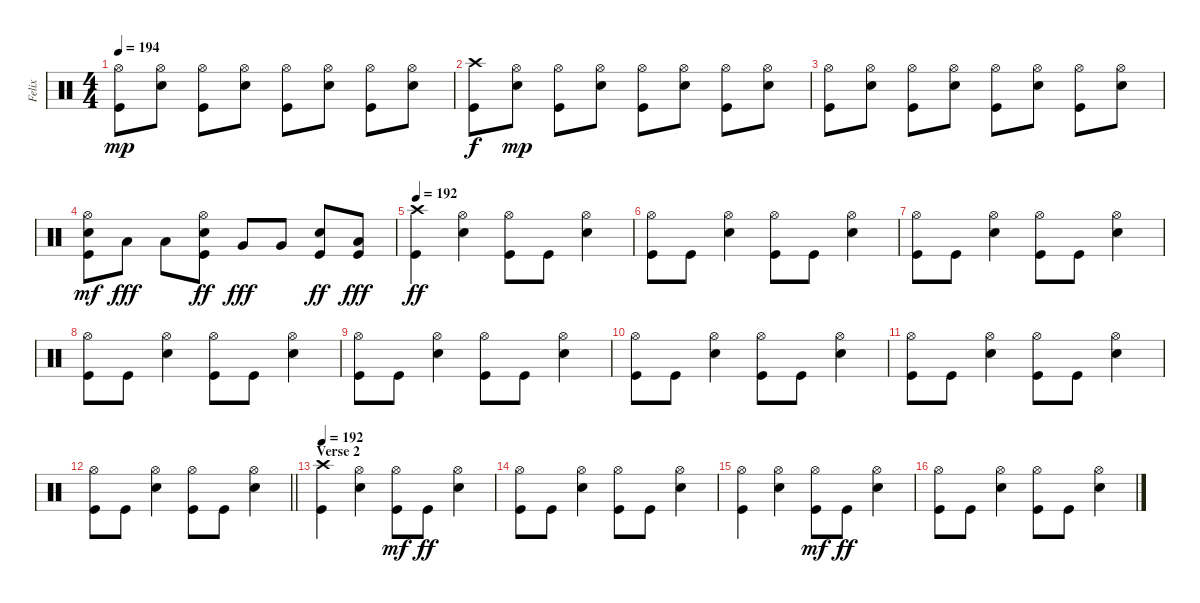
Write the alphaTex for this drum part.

\track ("Felix" "Felix") {instrument percussion}
\staff {score}
\articulation defaults
\ts (4 4)
\tempo 194
\clef neutral
\ks c
("Hi-Hat (open)" "Kick (hit)").8{dy mp} ("Hi-Hat (open)" "Snare (hit) 2").8 ("Hi-Hat (open)" "Kick (hit)").8 ("Hi-Hat (open)" "Snare (hit) 2").8 ("Hi-Hat (open)" "Kick (hit)").8 ("Hi-Hat (open)" "Snare (hit) 2").8 ("Hi-Hat (open)" "Kick (hit)").8 ("Hi-Hat (open)" "Snare (hit) 2").8 |
("Crash high (hit)" "Kick (hit)").8{dy f} ("Hi-Hat (open)" "Snare (hit) 2").8{dy mp} ("Hi-Hat (open)" "Kick (hit)").8 ("Hi-Hat (open)" "Snare (hit) 2").8 ("Hi-Hat (open)" "Kick (hit)").8 ("Hi-Hat (open)" "Snare (hit) 2").8 ("Hi-Hat (open)" "Kick (hit)").8 ("Hi-Hat (open)" "Snare (hit) 2").8 |
("Hi-Hat (open)" "Kick (hit)").8 ("Hi-Hat (open)" "Snare (hit) 2").8 ("Hi-Hat (open)" "Kick (hit)").8 ("Hi-Hat (open)" "Snare (hit) 2").8 ("Hi-Hat (open)" "Kick (hit)").8 ("Hi-Hat (open)" "Snare (hit) 2").8 ("Hi-Hat (open)" "Kick (hit)").8 ("Hi-Hat (open)" "Snare (hit) 2").8 |
("Hi-Hat (open)" "Snare (hit) 2" "Kick (hit)").8{dy mf} "Low Tom (hit)".8{dy fff} "Low Tom (hit)".8 ("Hi-Hat (open)" "Snare (hit) 2" "Kick (hit)").8{dy ff} "Very Low Tom (hit)".8{dy fff} "Very Low Tom (hit)".8 ("Snare (hit) 2" "Kick (hit)").8{dy ff} ("Low Floor Tom (hit)" "Kick (hit)").8{dy fff} |
\tempo 192
("Crash high (hit)" "Kick (hit)").4{dy ff} ("Hi-Hat (open)" "Snare (hit) 2").4 ("Hi-Hat (open)" "Kick (hit)").8 "Kick (hit)".8 ("Hi-Hat (open)" "Snare (hit) 2").4 |
("Hi-Hat (open)" "Kick (hit)").8 "Kick (hit)".8 ("Hi-Hat (open)" "Snare (hit) 2").4 ("Hi-Hat (open)" "Kick (hit)").8 "Kick (hit)".8 ("Hi-Hat (open)" "Snare (hit) 2").4 |
("Hi-Hat (open)" "Kick (hit)").8 "Kick (hit)".8 ("Hi-Hat (open)" "Snare (hit) 2").4 ("Hi-Hat (open)" "Kick (hit)").8 "Kick (hit)".8 ("Hi-Hat (open)" "Snare (hit) 2").4 |
("Hi-Hat (open)" "Kick (hit)").8 "Kick (hit)".8 ("Hi-Hat (open)" "Snare (hit) 2").4 ("Hi-Hat (open)" "Kick (hit)").8 "Kick (hit)".8 ("Hi-Hat (open)" "Snare (hit) 2").4 |
("Hi-Hat (open)" "Kick (hit)").8 "Kick (hit)".8 ("Hi-Hat (open)" "Snare (hit) 2").4 ("Hi-Hat (open)" "Kick (hit)").8 "Kick (hit)".8 ("Hi-Hat (open)" "Snare (hit) 2").4 |
("Hi-Hat (open)" "Kick (hit)").8 "Kick (hit)".8 ("Hi-Hat (open)" "Snare (hit) 2").4 ("Hi-Hat (open)" "Kick (hit)").8 "Kick (hit)".8 ("Hi-Hat (open)" "Snare (hit) 2").4 |
("Hi-Hat (open)" "Kick (hit)").8 "Kick (hit)".8 ("Hi-Hat (open)" "Snare (hit) 2").4 ("Hi-Hat (open)" "Kick (hit)").8 "Kick (hit)".8 ("Hi-Hat (open)" "Snare (hit) 2").4 |
\barLineRight lightlight
("Hi-Hat (open)" "Kick (hit)").8 "Kick (hit)".8 ("Hi-Hat (open)" "Snare (hit) 2").4 ("Hi-Hat (open)" "Kick (hit)").8 "Kick (hit)".8 ("Hi-Hat (open)" "Snare (hit) 2").4 |
\section ("" "Verse 2")
\tempo 192
("Crash high (hit)" "Kick (hit)").4 ("Hi-Hat (open)" "Snare (hit) 2").4 ("Hi-Hat (open)" "Kick (hit)").8{dy mf} "Kick (hit)".8{dy ff} ("Hi-Hat (open)" "Snare (hit) 2").4 |
("Hi-Hat (open)" "Kick (hit)").8 "Kick (hit)".8 ("Hi-Hat (open)" "Snare (hit) 2").4 ("Hi-Hat (open)" "Kick (hit)").8 "Kick (hit)".8 ("Hi-Hat (open)" "Snare (hit) 2").4 |
("Hi-Hat (open)" "Kick (hit)").4 ("Hi-Hat (open)" "Snare (hit) 2").4 ("Hi-Hat (open)" "Kick (hit)").8{dy mf} "Kick (hit)".8{dy ff} ("Hi-Hat (open)" "Snare (hit) 2").4 |
("Hi-Hat (open)" "Kick (hit)").8 "Kick (hit)".8 ("Hi-Hat (open)" "Snare (hit) 2").4 ("Hi-Hat (open)" "Kick (hit)").8 "Kick (hit)".8 ("Hi-Hat (open)" "Snare (hit) 2").4
